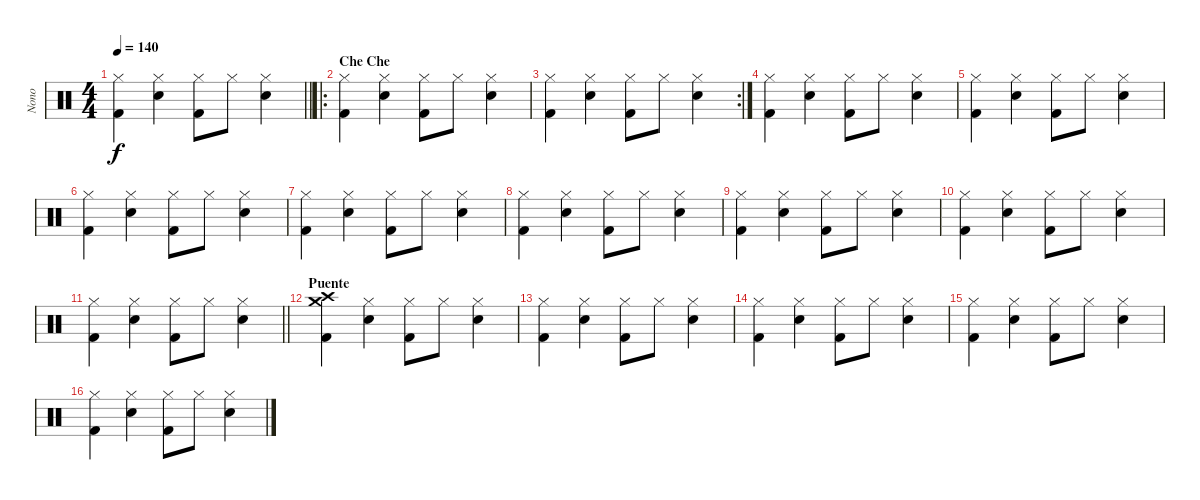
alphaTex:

\track ("Nono" "Nono") {instrument percussion}
\staff {score}
\articulation defaults
\ts (4 4)
\tempo 140
\clef neutral
\barLineRight lightlight
\ks c
("Hi-Hat (closed)" "Kick (hit) 2").4{dy f} ("Hi-Hat (closed)" "Snare (hit) 2").4 ("Hi-Hat (closed)" "Kick (hit) 2").8 "Hi-Hat (closed)".8 ("Hi-Hat (closed)" "Snare (hit) 2").4 |
\ro
\section ("" "Che Che")
("Hi-Hat (closed)" "Kick (hit) 2").4 ("Hi-Hat (closed)" "Snare (hit) 2").4 ("Hi-Hat (closed)" "Kick (hit) 2").8 "Hi-Hat (closed)".8 ("Hi-Hat (closed)" "Snare (hit) 2").4 |
\rc 2
("Hi-Hat (closed)" "Kick (hit) 2").4 ("Hi-Hat (closed)" "Snare (hit) 2").4 ("Hi-Hat (closed)" "Kick (hit) 2").8 "Hi-Hat (closed)".8 ("Hi-Hat (closed)" "Snare (hit) 2").4 |
("Hi-Hat (closed)" "Kick (hit) 2").4 ("Hi-Hat (closed)" "Snare (hit) 2").4 ("Hi-Hat (closed)" "Kick (hit) 2").8 "Hi-Hat (closed)".8 ("Hi-Hat (closed)" "Snare (hit) 2").4 |
("Hi-Hat (closed)" "Kick (hit) 2").4 ("Hi-Hat (closed)" "Snare (hit) 2").4 ("Hi-Hat (closed)" "Kick (hit) 2").8 "Hi-Hat (closed)".8 ("Hi-Hat (closed)" "Snare (hit) 2").4 |
("Hi-Hat (closed)" "Kick (hit) 2").4 ("Hi-Hat (closed)" "Snare (hit) 2").4 ("Hi-Hat (closed)" "Kick (hit) 2").8 "Hi-Hat (closed)".8 ("Hi-Hat (closed)" "Snare (hit) 2").4 |
("Hi-Hat (closed)" "Kick (hit) 2").4 ("Hi-Hat (closed)" "Snare (hit) 2").4 ("Hi-Hat (closed)" "Kick (hit) 2").8 "Hi-Hat (closed)".8 ("Hi-Hat (closed)" "Snare (hit) 2").4 |
("Hi-Hat (closed)" "Kick (hit) 2").4 ("Hi-Hat (closed)" "Snare (hit) 2").4 ("Hi-Hat (closed)" "Kick (hit) 2").8 "Hi-Hat (closed)".8 ("Hi-Hat (closed)" "Snare (hit) 2").4 |
("Hi-Hat (closed)" "Kick (hit) 2").4 ("Hi-Hat (closed)" "Snare (hit) 2").4 ("Hi-Hat (closed)" "Kick (hit) 2").8 "Hi-Hat (closed)".8 ("Hi-Hat (closed)" "Snare (hit) 2").4 |
("Hi-Hat (closed)" "Kick (hit) 2").4 ("Hi-Hat (closed)" "Snare (hit) 2").4 ("Hi-Hat (closed)" "Kick (hit) 2").8 "Hi-Hat (closed)".8 ("Hi-Hat (closed)" "Snare (hit) 2").4 |
\barLineRight lightlight
("Hi-Hat (closed)" "Kick (hit) 2").4 ("Hi-Hat (closed)" "Snare (hit) 2").4 ("Hi-Hat (closed)" "Kick (hit) 2").8 "Hi-Hat (closed)".8 ("Hi-Hat (closed)" "Snare (hit) 2").4 |
\section ("" "Puente")
("Crash high (hit)" "Crash medium (hit)" "Kick (hit) 2").4 ("Hi-Hat (closed)" "Snare (hit) 2").4 ("Hi-Hat (closed)" "Kick (hit) 2").8 "Hi-Hat (closed)".8 ("Hi-Hat (closed)" "Snare (hit) 2").4 |
("Hi-Hat (closed)" "Kick (hit) 2").4 ("Hi-Hat (closed)" "Snare (hit) 2").4 ("Hi-Hat (closed)" "Kick (hit) 2").8 "Hi-Hat (closed)".8 ("Hi-Hat (closed)" "Snare (hit) 2").4 |
("Hi-Hat (closed)" "Kick (hit) 2").4 ("Hi-Hat (closed)" "Snare (hit) 2").4 ("Hi-Hat (closed)" "Kick (hit) 2").8 "Hi-Hat (closed)".8 ("Hi-Hat (closed)" "Snare (hit) 2").4 |
("Hi-Hat (closed)" "Kick (hit) 2").4 ("Hi-Hat (closed)" "Snare (hit) 2").4 ("Hi-Hat (closed)" "Kick (hit) 2").8 "Hi-Hat (closed)".8 ("Hi-Hat (closed)" "Snare (hit) 2").4 |
("Hi-Hat (closed)" "Kick (hit) 2").4 ("Hi-Hat (closed)" "Snare (hit) 2").4 ("Hi-Hat (closed)" "Kick (hit) 2").8 "Hi-Hat (closed)".8 ("Hi-Hat (closed)" "Snare (hit) 2").4
